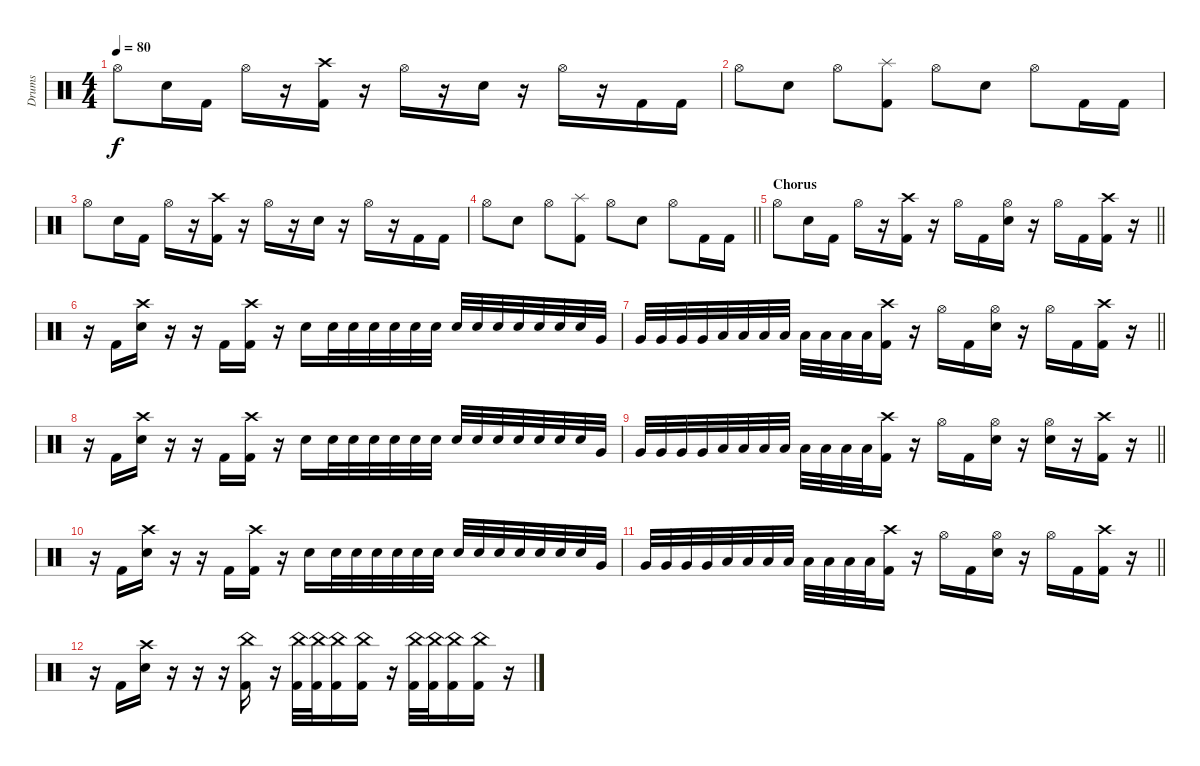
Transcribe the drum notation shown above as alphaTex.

\track ("Drums" "Drums") {instrument percussion}
\staff {score}
\articulation defaults
\ts (4 4)
\tempo 80
\clef neutral
\ks c "Hi-Hat (open)".8{dy f} "Snare (hit) 2".16 "Kick (hit) 2".16 "Hi-Hat (open)".16
r.16 ("Kick (hit) 2" "Crash high (hit)").16 r.16 "Hi-Hat (open)".16 r.16 "Snare (hit) 2".16 r.16 "Hi-Hat (open)".16 r.16 "Kick (hit) 2".16 "Kick (hit) 2".16 |
"Hi-Hat (open)".8 "Snare (hit) 2".8 "Hi-Hat (open)".8 ("Splash (hit)" "Kick (hit) 2").8 "Hi-Hat (open)".8 "Snare (hit) 2".8 "Hi-Hat (open)".8 "Kick (hit) 2".16 "Kick (hit) 2".16 |
"Hi-Hat (open)".8 "Snare (hit) 2".16 "Kick (hit) 2".16 "Hi-Hat (open)".16 r.16 ("Kick (hit) 2" "Crash high (hit)").16 r.16 "Hi-Hat (open)".16 r.16 "Snare (hit) 2".16 r.16 "Hi-Hat (open)".16 r.16 "Kick (hit) 2".16 "Kick (hit) 2".16 |
\barLineRight lightlight "Hi-Hat (open)".8 "Snare (hit) 2".8 "Hi-Hat (open)".8
("Splash (hit)" "Kick (hit) 2").8 "Hi-Hat (open)".8 "Snare (hit) 2".8 "Hi-Hat (open)".8 "Kick (hit) 2".16 "Kick (hit) 2".16 |
\section ("" "Chorus")
\barLineRight lightlight "Hi-Hat (open)".8 "Snare (hit) 2".16 "Kick (hit) 2".16 "Hi-Hat (open)".16
r.16 ("Crash high (hit)" "Kick (hit) 2").16 r.16 "Hi-Hat (open)".16 "Kick (hit) 2".16 ("Hi-Hat (open)" "Snare (hit) 2").16 r.16 "Hi-Hat (open)".16 "Kick (hit) 2".16 ("Crash high (hit)" "Kick (hit) 2").16 r.16 |
r.16 "Kick (hit) 2".16 ("Crash high (hit)" "Snare (hit) 2").16 r.16 r.16 "Kick (hit) 2".16 ("Crash high (hit)" "Kick (hit) 2").16 r.16 "Snare (hit) 2".16 "Snare (hit) 2".32 "Snare (hit) 2".32 "Snare (hit) 2".32 "Snare (hit) 2".32 "Snare (hit) 2".32 "Snare (hit) 2".32 "Snare (hit) 2".32 "Snare (hit) 2".32 "Snare (hit) 2".32 "Snare (hit) 2".32 "Snare (hit) 2".32 "Snare (hit) 2".32 "Snare (hit) 2".32 "Very Low Tom (hit)".32 |
\barLineRight lightlight "Very Low Tom (hit)".32 "Very Low Tom (hit)".32 "Very Low Tom (hit)".32 "Very Low Tom (hit)".32 "Low Floor Tom (hit)".32 "Low Floor Tom (hit)".32 "Low Floor Tom (hit)".32 "Low Floor Tom (hit)".32 "Low Floor Tom (hit)".32 "Low Floor Tom (hit)".32 "Low Floor Tom (hit)".32 "Low Floor Tom (hit)".32
("Crash high (hit)" "Kick (hit) 2").16 r.16 "Hi-Hat (open)".16 "Kick (hit) 2".16 ("Hi-Hat (open)" "Snare (hit) 2").16 r.16 "Hi-Hat (open)".16 "Kick (hit) 2".16 ("Crash high (hit)" "Kick (hit) 2").16 r.16 |
r.16 "Kick (hit) 2".16 ("Crash high (hit)" "Snare (hit) 2").16 r.16 r.16 "Kick (hit) 2".16 ("Crash high (hit)" "Kick (hit) 2").16 r.16 "Snare (hit) 2".16 "Snare (hit) 2".32 "Snare (hit) 2".32 "Snare (hit) 2".32 "Snare (hit) 2".32 "Snare (hit) 2".32 "Snare (hit) 2".32 "Snare (hit) 2".32 "Snare (hit) 2".32 "Snare (hit) 2".32 "Snare (hit) 2".32 "Snare (hit) 2".32 "Snare (hit) 2".32 "Snare (hit) 2".32 "Very Low Tom (hit)".32 |
\barLineRight lightlight "Very Low Tom (hit)".32 "Very Low Tom (hit)".32 "Very Low Tom (hit)".32 "Very Low Tom (hit)".32 "Low Floor Tom (hit)".32 "Low Floor Tom (hit)".32 "Low Floor Tom (hit)".32 "Low Floor Tom (hit)".32 "Low Floor Tom (hit)".32 "Low Floor Tom (hit)".32 "Low Floor Tom (hit)".32 "Low Floor Tom (hit)".32
("Crash high (hit)" "Kick (hit) 2").16 r.16 "Hi-Hat (open)".16 "Kick (hit) 2".16 ("Hi-Hat (open)" "Snare (hit) 2").16 r.16 ("Hi-Hat (open)" "Snare (hit) 2").16 r.16 ("Crash high (hit)" "Kick (hit) 2").16 r.16 |
r.16 "Kick (hit) 2".16 ("Crash high (hit)" "Snare (hit) 2").16 r.16 r.16 "Kick (hit) 2".16 ("Crash high (hit)" "Kick (hit) 2").16 r.16 "Snare (hit) 2".16 "Snare (hit) 2".32 "Snare (hit) 2".32 "Snare (hit) 2".32 "Snare (hit) 2".32 "Snare (hit) 2".32 "Snare (hit) 2".32 "Snare (hit) 2".32 "Snare (hit) 2".32 "Snare (hit) 2".32 "Snare (hit) 2".32 "Snare (hit) 2".32 "Snare (hit) 2".32 "Snare (hit) 2".32 "Very Low Tom (hit)".32 |
\barLineRight lightlight "Very Low Tom (hit)".32 "Very Low Tom (hit)".32 "Very Low Tom (hit)".32 "Very Low Tom (hit)".32 "Low Floor Tom (hit)".32 "Low Floor Tom (hit)".32 "Low Floor Tom (hit)".32 "Low Floor Tom (hit)".32 "Low Floor Tom (hit)".32 "Low Floor Tom (hit)".32 "Low Floor Tom (hit)".32 "Low Floor Tom (hit)".32
("Crash high (hit)" "Kick (hit) 2").16 r.16 "Hi-Hat (open)".16 "Kick (hit) 2".16 ("Hi-Hat (open)" "Snare (hit) 2").16 r.16 "Hi-Hat (open)".16 "Kick (hit) 2".16 ("Crash high (hit)" "Kick (hit) 2").16 r.16 |
r.16 "Kick (hit) 2".16 ("Crash high (hit)" "Snare (hit) 2").16 r.16 r.16 r.16 ("China (hit)" "Kick (hit) 2").16 r.16 ("China (hit)" "Kick (hit) 2").32 ("China (hit)" "Kick (hit) 2").32 ("China (hit)" "Kick (hit) 2").16 ("China (hit)" "Kick (hit) 2").16 r.16 ("China (hit)" "Kick (hit) 2").32 ("China (hit)" "Kick (hit) 2").32 ("China (hit)" "Kick (hit) 2").16 ("China (hit)" "Kick (hit) 2").16 r.16
